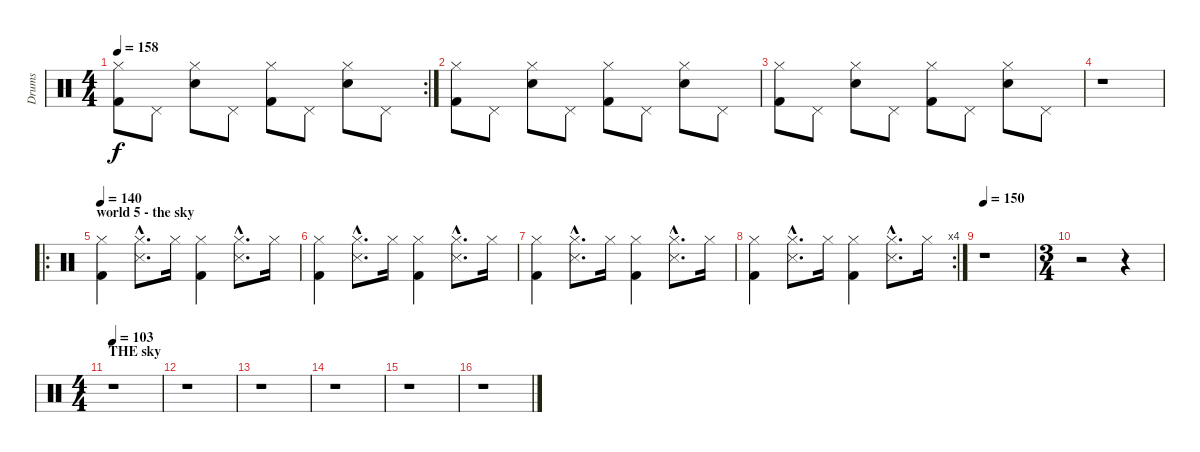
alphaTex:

\track ("Drums" "Drums") {instrument percussion}
\staff {score}
\articulation defaults
\rc 2
\ts (4 4)
\tempo 158
\clef neutral
\ks c
("Hi-Hat (closed)" "Kick (hit) 2").8{dy f} "Pedal Hi-Hat (hit)".8 ("Hi-Hat (closed)" "Electric Snare (hit)").8 "Pedal Hi-Hat (hit)".8 ("Hi-Hat (closed)" "Kick (hit) 2").8 "Pedal Hi-Hat (hit)".8 ("Hi-Hat (closed)" "Electric Snare (hit)").8 "Pedal Hi-Hat (hit)".8 |
("Hi-Hat (closed)" "Kick (hit) 2").8 "Pedal Hi-Hat (hit)".8 ("Hi-Hat (closed)" "Electric Snare (hit)").8 "Pedal Hi-Hat (hit)".8 ("Hi-Hat (closed)" "Kick (hit) 2").8 "Pedal Hi-Hat (hit)".8 ("Hi-Hat (closed)" "Electric Snare (hit)").8 "Pedal Hi-Hat (hit)".8 |
("Hi-Hat (closed)" "Kick (hit) 2").8 "Pedal Hi-Hat (hit)".8 ("Hi-Hat (closed)" "Electric Snare (hit)").8 "Pedal Hi-Hat (hit)".8 ("Hi-Hat (closed)" "Kick (hit) 2").8 "Pedal Hi-Hat (hit)".8 ("Hi-Hat (closed)" "Electric Snare (hit)").8 "Pedal Hi-Hat (hit)".8 |
r.1 |
\ro
\section ("" "world 5 - the sky")
\tempo 140
("Hi-Hat (closed)" "Kick (hit) 2").4{volume 12} ("Hi-Hat (closed)"{hac} "Snare (side stick) 3"{hac}).8{d} "Hi-Hat (closed)".16 ("Hi-Hat (closed)" "Kick (hit) 2").4 ("Hi-Hat (closed)"{hac} "Snare (side stick) 3"{hac}).8{d} "Hi-Hat (closed)".16 |
("Hi-Hat (closed)" "Kick (hit) 2").4 ("Hi-Hat (closed)"{hac} "Snare (side stick) 3"{hac}).8{d} "Hi-Hat (closed)".16 ("Hi-Hat (closed)" "Kick (hit) 2").4 ("Hi-Hat (closed)"{hac} "Snare (side stick) 3"{hac}).8{d} "Hi-Hat (closed)".16 |
("Hi-Hat (closed)" "Kick (hit) 2").4 ("Hi-Hat (closed)"{hac} "Snare (side stick) 3"{hac}).8{d} "Hi-Hat (closed)".16 ("Hi-Hat (closed)" "Kick (hit) 2").4 ("Hi-Hat (closed)"{hac} "Snare (side stick) 3"{hac}).8{d} "Hi-Hat (closed)".16 |
\rc 4
("Hi-Hat (closed)" "Kick (hit) 2").4 ("Hi-Hat (closed)"{hac} "Snare (side stick) 3"{hac}).8{d} "Hi-Hat (closed)".16 ("Hi-Hat (closed)" "Kick (hit) 2").4 ("Hi-Hat (closed)"{hac} "Snare (side stick) 3"{hac}).8{d} "Hi-Hat (closed)".16 |
\tempo 150
r.1 |
\ts (3 4)
r.2 r.4 |
\ts (4 4)
\section ("" "THE sky")
\tempo 103
r.1 |
r.1 |
r.1 |
r.1 |
r.1 |
r.1
